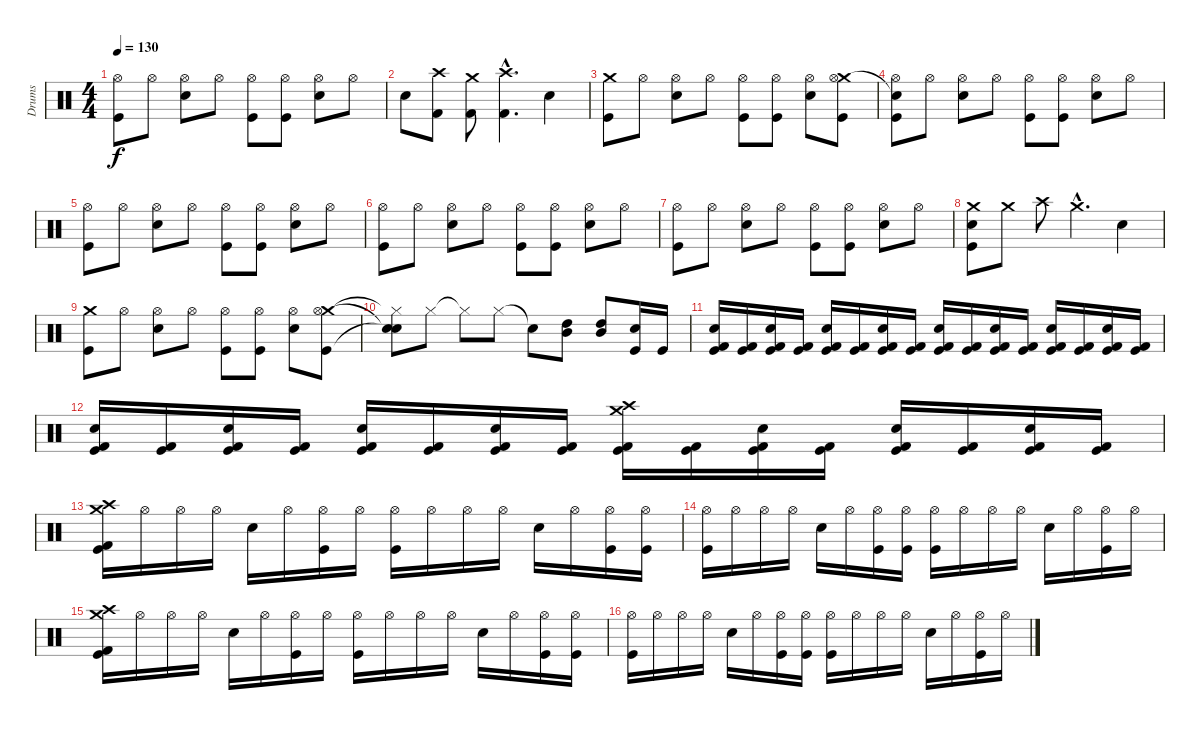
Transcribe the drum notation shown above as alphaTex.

\track ("Drums" "Drums") {instrument percussion}
\staff {score}
\articulation defaults
\ts (4 4)
\tempo 130
\clef neutral
\ks c
("Kick (hit)" "Hi-Hat (open)").8{dy f} "Hi-Hat (open)".8 ("Electric Snare (hit)" "Hi-Hat (open)").8 "Hi-Hat (open)".8 ("Kick (hit)" "Hi-Hat (open)").8 ("Kick (hit)" "Hi-Hat (open)").8 ("Electric Snare (hit)" "Hi-Hat (open)").8 "Hi-Hat (open)".8 |
"Electric Snare (hit)".8 ("Kick (hit) 2" "Crash high (hit)").8 ("Kick (hit) 2" "Crash medium (hit)").8 ("Kick (hit) 2"{hac} "Crash high (hit)"{hac}).4{d} "Electric Snare (hit)".4 |
("Kick (hit)" "Crash medium (hit)").8 "Hi-Hat (open)".8 ("Electric Snare (hit)" "Hi-Hat (open)").8 "Hi-Hat (open)".8 ("Kick (hit)" "Hi-Hat (open)").8 ("Kick (hit)" "Hi-Hat (open)").8 ("Electric Snare (hit)" "Hi-Hat (open)").8 ("Kick (hit)" "Crash medium (hit)" "Hi-Hat (open)").8 |
("Kick (hit)" "Snare (hit)"{t} "Hi-Hat (open)").8 "Hi-Hat (open)".8 ("Electric Snare (hit)" "Hi-Hat (open)").8 "Hi-Hat (open)".8 ("Kick (hit)" "Hi-Hat (open)").8 ("Kick (hit)" "Hi-Hat (open)").8 ("Electric Snare (hit)" "Hi-Hat (open)").8 "Hi-Hat (open)".8 |
("Kick (hit)" "Hi-Hat (open)").8 "Hi-Hat (open)".8 ("Electric Snare (hit)" "Hi-Hat (open)").8 "Hi-Hat (open)".8 ("Kick (hit)" "Hi-Hat (open)").8 ("Kick (hit)" "Hi-Hat (open)").8 ("Electric Snare (hit)" "Hi-Hat (open)").8 "Hi-Hat (open)".8 |
("Kick (hit)" "Hi-Hat (open)").8 "Hi-Hat (open)".8 ("Electric Snare (hit)" "Hi-Hat (open)").8 "Hi-Hat (open)".8 ("Kick (hit)" "Hi-Hat (open)").8 ("Kick (hit)" "Hi-Hat (open)").8 ("Electric Snare (hit)" "Hi-Hat (open)").8 "Hi-Hat (open)".8 |
("Kick (hit)" "Hi-Hat (open)").8 "Hi-Hat (open)".8 ("Electric Snare (hit)" "Hi-Hat (open)").8 "Hi-Hat (open)".8 ("Kick (hit)" "Hi-Hat (open)").8 ("Kick (hit)" "Hi-Hat (open)").8 ("Electric Snare (hit)" "Hi-Hat (open)").8 "Hi-Hat (open)".8 |
("Crash medium (hit)" "Kick (hit)" "Electric Snare (hit)").8 "Crash medium (hit)".8 "Crash high (hit)".8 "Crash medium (hit)"{hac}.4{d} "Electric Snare (hit)".4 |
("Kick (hit)" "Crash medium (hit)").8 "Hi-Hat (open)".8 ("Electric Snare (hit)" "Hi-Hat (open)").8 "Hi-Hat (open)".8 ("Kick (hit)" "Hi-Hat (open)").8 ("Kick (hit)" "Hi-Hat (open)").8 ("Electric Snare (hit)" "Hi-Hat (open)").8 ("Kick (hit)" "Crash medium (hit)" "Hi-Hat (open)").8 |
("Snare (hit)"{t} "Snare (hit)"{t} "Hi-Hat (closed)"{t}).8 "Hi-Hat (closed)".8 "Hi-Hat (closed)"{t}.8 "Hi-Hat (closed)".8 "Electric Snare (hit)"{t}.8 ("Mid Tom (hit)" "High Tom (hit)").8 ("Mid Tom (hit)" "High Tom (hit)").8 ("Electric Snare (hit)" "Kick (hit)").16 "Kick (hit)".16 |
("Electric Snare (hit)" "Kick (hit)" "Kick (hit) 2").16 ("Kick (hit)" "Kick (hit) 2").16 ("Electric Snare (hit)" "Kick (hit)" "Kick (hit) 2").16 ("Kick (hit)" "Kick (hit) 2").16 ("Electric Snare (hit)" "Kick (hit)" "Kick (hit) 2").16 ("Kick (hit)" "Kick (hit) 2").16 ("Electric Snare (hit)" "Kick (hit)" "Kick (hit) 2").16 ("Kick (hit)" "Kick (hit) 2").16 ("Electric Snare (hit)" "Kick (hit)" "Kick (hit) 2").16 ("Kick (hit)" "Kick (hit) 2").16 ("Electric Snare (hit)" "Kick (hit)" "Kick (hit) 2").16 ("Kick (hit)" "Kick (hit) 2").16 ("Electric Snare (hit)" "Kick (hit)" "Kick (hit) 2").16 ("Kick (hit)" "Kick (hit) 2").16 ("Electric Snare (hit)" "Kick (hit)" "Kick (hit) 2").16 ("Kick (hit)" "Kick (hit) 2").16 |
("Electric Snare (hit)" "Kick (hit)" "Kick (hit) 2").16 ("Kick (hit)" "Kick (hit) 2").16 ("Electric Snare (hit)" "Kick (hit)" "Kick (hit) 2").16 ("Kick (hit)" "Kick (hit) 2").16 ("Electric Snare (hit)" "Kick (hit)" "Kick (hit) 2").16 ("Kick (hit)" "Kick (hit) 2").16 ("Electric Snare (hit)" "Kick (hit)" "Kick (hit) 2").16 ("Kick (hit)" "Kick (hit) 2").16 ("Crash medium (hit)" "Crash high (hit)" "Kick (hit)" "Kick (hit) 2").16 ("Kick (hit)" "Kick (hit) 2").16 ("Electric Snare (hit)" "Kick (hit)" "Kick (hit) 2").16 ("Kick (hit)" "Kick (hit) 2").16 ("Electric Snare (hit)" "Kick (hit)" "Kick (hit) 2").16 ("Kick (hit)" "Kick (hit) 2").16 ("Electric Snare (hit)" "Kick (hit)" "Kick (hit) 2").16 ("Kick (hit)" "Kick (hit) 2").16 |
("Crash medium (hit)" "Crash high (hit)" "Kick (hit) 2" "Kick (hit)").16 "Hi-Hat (open)".16 "Hi-Hat (open)".16 "Hi-Hat (open)".16 "Electric Snare (hit)".16 "Hi-Hat (open)".16 ("Hi-Hat (open)" "Kick (hit)").16 "Hi-Hat (open)".16 ("Hi-Hat (open)" "Kick (hit)").16 "Hi-Hat (open)".16 "Hi-Hat (open)".16 "Hi-Hat (open)".16 "Electric Snare (hit)".16 "Hi-Hat (open)".16 ("Hi-Hat (open)" "Kick (hit)").16 ("Hi-Hat (open)" "Kick (hit)").16 |
("Hi-Hat (open)" "Kick (hit)").16 "Hi-Hat (open)".16 "Hi-Hat (open)".16 "Hi-Hat (open)".16 "Electric Snare (hit)".16 "Hi-Hat (open)".16 ("Hi-Hat (open)" "Kick (hit)").16 ("Hi-Hat (open)" "Kick (hit)").16 ("Hi-Hat (open)" "Kick (hit)").16 "Hi-Hat (open)".16 "Hi-Hat (open)".16 "Hi-Hat (open)".16 "Electric Snare (hit)".16 "Hi-Hat (open)".16 ("Hi-Hat (open)" "Kick (hit)").16 "Hi-Hat (open)".16 |
("Crash medium (hit)" "Crash high (hit)" "Kick (hit) 2" "Kick (hit)").16 "Hi-Hat (open)".16 "Hi-Hat (open)".16 "Hi-Hat (open)".16 "Electric Snare (hit)".16 "Hi-Hat (open)".16 ("Hi-Hat (open)" "Kick (hit)").16 "Hi-Hat (open)".16 ("Hi-Hat (open)" "Kick (hit)").16 "Hi-Hat (open)".16 "Hi-Hat (open)".16 "Hi-Hat (open)".16 "Electric Snare (hit)".16 "Hi-Hat (open)".16 ("Hi-Hat (open)" "Kick (hit)").16 ("Hi-Hat (open)" "Kick (hit)").16 |
("Hi-Hat (open)" "Kick (hit)").16 "Hi-Hat (open)".16 "Hi-Hat (open)".16 "Hi-Hat (open)".16 "Electric Snare (hit)".16 "Hi-Hat (open)".16 ("Hi-Hat (open)" "Kick (hit)").16 ("Hi-Hat (open)" "Kick (hit)").16 ("Hi-Hat (open)" "Kick (hit)").16 "Hi-Hat (open)".16 "Hi-Hat (open)".16 "Hi-Hat (open)".16 "Electric Snare (hit)".16 "Hi-Hat (open)".16 ("Hi-Hat (open)" "Kick (hit)").16 "Hi-Hat (open)".16
